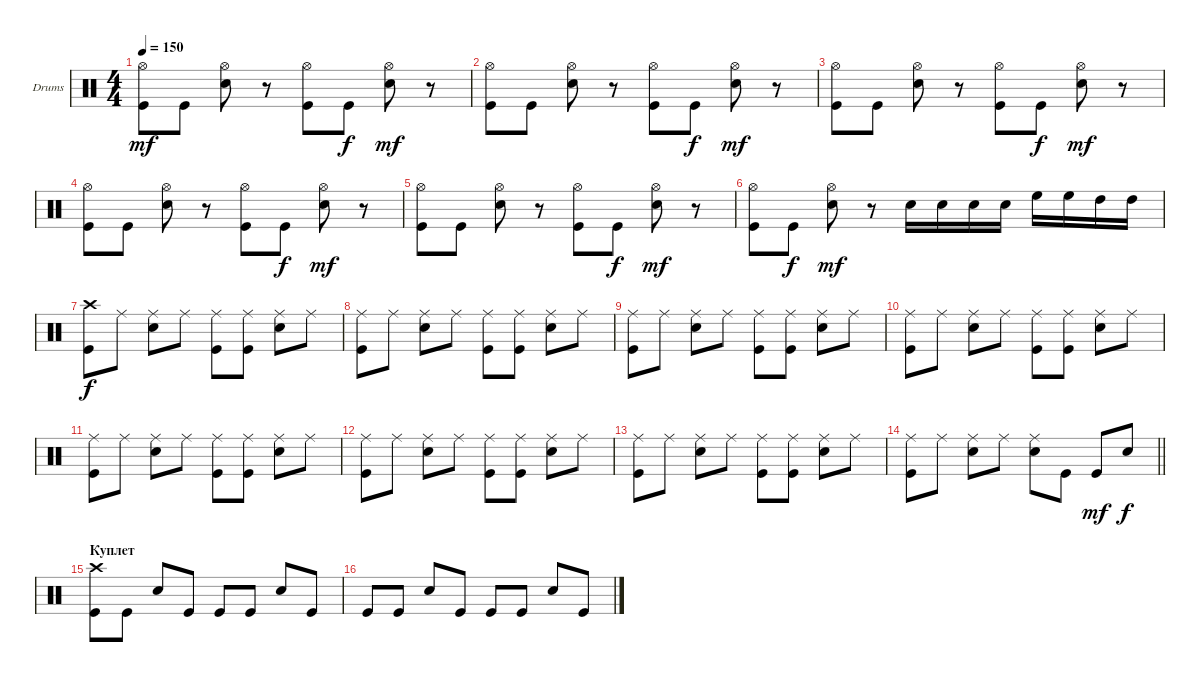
\bracketExtendMode groupsimilarinstruments
\firstSystemTrackNameOrientation horizontal
\otherSystemsTrackNameOrientation horizontal
\track ("Drumkit" "Drums") {instrument percussion}
\staff {score}
\articulation defaults
\ts (4 4)
\tempo 150
\clef neutral
\ks c
("Hi-Hat (open)" "Kick (hit)").8{dy mf} "Kick (hit)".8 ("Hi-Hat (open)" "Snare (hit) 2").8 r.8 ("Hi-Hat (open)" "Kick (hit)").8 "Kick (hit)".8{dy f} ("Hi-Hat (open)" "Snare (hit) 2").8{dy mf} r.8 |
("Hi-Hat (open)" "Kick (hit)").8 "Kick (hit)".8 ("Hi-Hat (open)" "Snare (hit) 2").8 r.8 ("Hi-Hat (open)" "Kick (hit)").8 "Kick (hit)".8{dy f} ("Hi-Hat (open)" "Snare (hit) 2").8{dy mf} r.8 |
("Hi-Hat (open)" "Kick (hit)").8 "Kick (hit)".8 ("Hi-Hat (open)" "Snare (hit) 2").8 r.8 ("Hi-Hat (open)" "Kick (hit)").8 "Kick (hit)".8{dy f} ("Hi-Hat (open)" "Snare (hit) 2").8{dy mf} r.8 |
("Hi-Hat (open)" "Kick (hit)").8 "Kick (hit)".8 ("Hi-Hat (open)" "Snare (hit) 2").8 r.8 ("Hi-Hat (open)" "Kick (hit)").8 "Kick (hit)".8{dy f} ("Hi-Hat (open)" "Snare (hit) 2").8{dy mf} r.8 |
("Hi-Hat (open)" "Kick (hit)").8 "Kick (hit)".8 ("Hi-Hat (open)" "Snare (hit) 2").8 r.8 ("Hi-Hat (open)" "Kick (hit)").8 "Kick (hit)".8{dy f} ("Hi-Hat (open)" "Snare (hit) 2").8{dy mf} r.8 |
("Hi-Hat (open)" "Kick (hit)").8 "Kick (hit)".8{dy f} ("Hi-Hat (open)" "Snare (hit) 2").8{dy mf} r.8 "Snare (hit) 2".16 "Snare (hit) 2".16 "Snare (hit) 2".16 "Snare (hit) 2".16 "High Floor Tom (hit)".16 "High Floor Tom (hit)".16 "High Tom (hit)".16 "High Tom (hit)".16 |
("Crash high (hit)" "Kick (hit)").8{dy f} "Ride (middle)".8 ("Ride (middle)" "Snare (hit) 2").8 "Ride (middle)".8 ("Ride (middle)" "Kick (hit)").8 ("Ride (middle)" "Kick (hit)").8 ("Ride (middle)" "Snare (hit) 2").8 "Ride (middle)".8 |
("Ride (middle)" "Kick (hit)").8 "Ride (middle)".8 ("Ride (middle)" "Snare (hit) 2").8 "Ride (middle)".8 ("Ride (middle)" "Kick (hit)").8 ("Ride (middle)" "Kick (hit)").8 ("Ride (middle)" "Snare (hit) 2").8 "Ride (middle)".8 |
("Ride (middle)" "Kick (hit)").8 "Ride (middle)".8 ("Ride (middle)" "Snare (hit) 2").8 "Ride (middle)".8 ("Ride (middle)" "Kick (hit)").8 ("Ride (middle)" "Kick (hit)").8 ("Ride (middle)" "Snare (hit) 2").8 "Ride (middle)".8 |
("Ride (middle)" "Kick (hit)").8 "Ride (middle)".8 ("Ride (middle)" "Snare (hit) 2").8 "Ride (middle)".8 ("Ride (middle)" "Kick (hit)").8 ("Ride (middle)" "Kick (hit)").8 ("Ride (middle)" "Snare (hit) 2").8 "Ride (middle)".8 |
("Ride (middle)" "Kick (hit)").8 "Ride (middle)".8 ("Ride (middle)" "Snare (hit) 2").8 "Ride (middle)".8 ("Ride (middle)" "Kick (hit)").8 ("Ride (middle)" "Kick (hit)").8 ("Ride (middle)" "Snare (hit) 2").8 "Ride (middle)".8 |
("Ride (middle)" "Kick (hit)").8 "Ride (middle)".8 ("Ride (middle)" "Snare (hit) 2").8 "Ride (middle)".8 ("Ride (middle)" "Kick (hit)").8 ("Ride (middle)" "Kick (hit)").8 ("Ride (middle)" "Snare (hit) 2").8 "Ride (middle)".8 |
("Ride (middle)" "Kick (hit)").8 "Ride (middle)".8 ("Ride (middle)" "Snare (hit) 2").8 "Ride (middle)".8 ("Ride (middle)" "Kick (hit)").8 ("Ride (middle)" "Kick (hit)").8 ("Ride (middle)" "Snare (hit) 2").8 "Ride (middle)".8 |
\barLineRight lightlight
("Ride (middle)" "Kick (hit)").8 "Ride (middle)".8 ("Ride (middle)" "Snare (hit) 2").8 "Ride (middle)".8 ("Ride (middle)" "Snare (hit) 2").8 "Kick (hit)".8 "Kick (hit)".8{dy mf} "Snare (hit) 2".8{dy f} |
\section ("" "Куплет")
("Crash high (hit)" "Kick (hit)").8 "Kick (hit)".8 "Snare (hit) 2".8 "Kick (hit)".8 "Kick (hit)".8 "Kick (hit)".8 "Snare (hit) 2".8 "Kick (hit)".8 |
"Kick (hit)".8 "Kick (hit)".8 "Snare (hit) 2".8 "Kick (hit)".8 "Kick (hit)".8 "Kick (hit)".8 "Snare (hit) 2".8 "Kick (hit)".8
